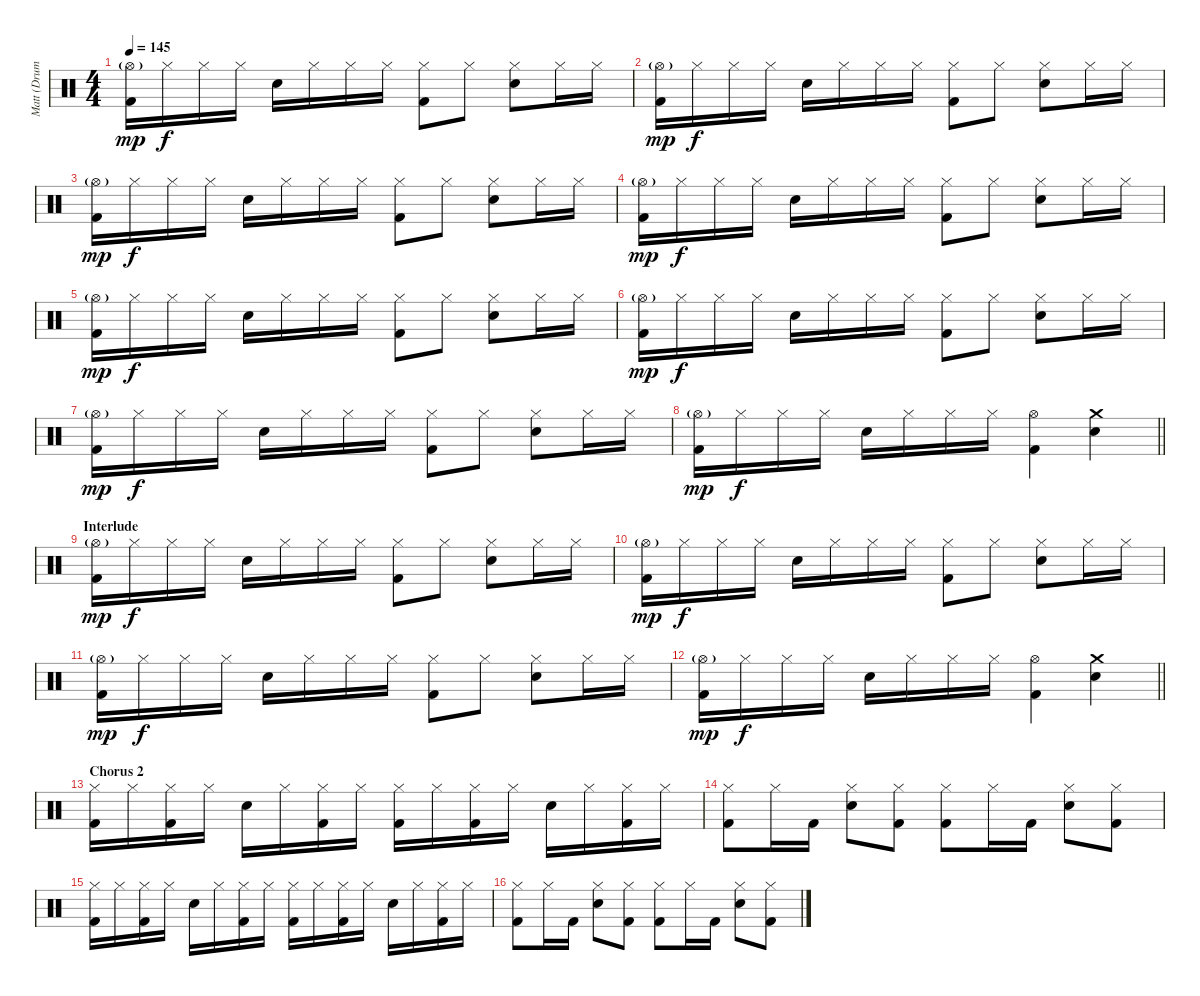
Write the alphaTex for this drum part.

\track ("Matt (Drums)" "Matt (Drum") {instrument percussion}
\staff {score}
\articulation defaults
\ts (4 4)
\tempo 145
\clef neutral
\ks c
("Hi-Hat (open)"{g} "Kick (hit) 2").16{dy mp} "Hi-Hat (closed)".16{dy f} "Hi-Hat (closed)".16 "Hi-Hat (closed)".16 "Electric Snare (hit)".16 "Hi-Hat (closed)".16 "Hi-Hat (closed)".16 "Hi-Hat (closed)".16 ("Hi-Hat (closed)" "Kick (hit) 2").8 "Hi-Hat (closed)".8 ("Hi-Hat (closed)" "Electric Snare (hit)").8 "Hi-Hat (closed)".16 "Hi-Hat (closed)".16 |
("Hi-Hat (open)"{g} "Kick (hit) 2").16{dy mp} "Hi-Hat (closed)".16{dy f} "Hi-Hat (closed)".16 "Hi-Hat (closed)".16 "Electric Snare (hit)".16 "Hi-Hat (closed)".16 "Hi-Hat (closed)".16 "Hi-Hat (closed)".16 ("Hi-Hat (closed)" "Kick (hit) 2").8 "Hi-Hat (closed)".8 ("Hi-Hat (closed)" "Electric Snare (hit)").8 "Hi-Hat (closed)".16 "Hi-Hat (closed)".16 |
("Hi-Hat (open)"{g} "Kick (hit) 2").16{dy mp} "Hi-Hat (closed)".16{dy f} "Hi-Hat (closed)".16 "Hi-Hat (closed)".16 "Electric Snare (hit)".16 "Hi-Hat (closed)".16 "Hi-Hat (closed)".16 "Hi-Hat (closed)".16 ("Hi-Hat (closed)" "Kick (hit) 2").8 "Hi-Hat (closed)".8 ("Hi-Hat (closed)" "Electric Snare (hit)").8 "Hi-Hat (closed)".16 "Hi-Hat (closed)".16 |
("Hi-Hat (open)"{g} "Kick (hit) 2").16{dy mp} "Hi-Hat (closed)".16{dy f} "Hi-Hat (closed)".16 "Hi-Hat (closed)".16 "Electric Snare (hit)".16 "Hi-Hat (closed)".16 "Hi-Hat (closed)".16 "Hi-Hat (closed)".16 ("Hi-Hat (closed)" "Kick (hit) 2").8 "Hi-Hat (closed)".8 ("Hi-Hat (closed)" "Electric Snare (hit)").8 "Hi-Hat (closed)".16 "Hi-Hat (closed)".16 |
("Hi-Hat (open)"{g} "Kick (hit) 2").16{dy mp} "Hi-Hat (closed)".16{dy f} "Hi-Hat (closed)".16 "Hi-Hat (closed)".16 "Electric Snare (hit)".16 "Hi-Hat (closed)".16 "Hi-Hat (closed)".16 "Hi-Hat (closed)".16 ("Hi-Hat (closed)" "Kick (hit) 2").8 "Hi-Hat (closed)".8 ("Hi-Hat (closed)" "Electric Snare (hit)").8 "Hi-Hat (closed)".16 "Hi-Hat (closed)".16 |
("Hi-Hat (open)"{g} "Kick (hit) 2").16{dy mp} "Hi-Hat (closed)".16{dy f} "Hi-Hat (closed)".16 "Hi-Hat (closed)".16 "Electric Snare (hit)".16 "Hi-Hat (closed)".16 "Hi-Hat (closed)".16 "Hi-Hat (closed)".16 ("Hi-Hat (closed)" "Kick (hit) 2").8 "Hi-Hat (closed)".8 ("Hi-Hat (closed)" "Electric Snare (hit)").8 "Hi-Hat (closed)".16 "Hi-Hat (closed)".16 |
("Hi-Hat (open)"{g} "Kick (hit) 2").16{dy mp} "Hi-Hat (closed)".16{dy f} "Hi-Hat (closed)".16 "Hi-Hat (closed)".16 "Electric Snare (hit)".16 "Hi-Hat (closed)".16 "Hi-Hat (closed)".16 "Hi-Hat (closed)".16 ("Hi-Hat (closed)" "Kick (hit) 2").8 "Hi-Hat (closed)".8 ("Hi-Hat (closed)" "Electric Snare (hit)").8 "Hi-Hat (closed)".16 "Hi-Hat (closed)".16 |
\barLineRight lightlight
("Hi-Hat (open)"{g} "Kick (hit) 2").16{dy mp} "Hi-Hat (closed)".16{dy f} "Hi-Hat (closed)".16 "Hi-Hat (closed)".16 "Electric Snare (hit)".16 "Hi-Hat (closed)".16 "Hi-Hat (closed)".16 "Hi-Hat (closed)".16 ("Hi-Hat (open)" "Kick (hit) 2").4 ("Crash medium (hit)" "Electric Snare (hit)").4 |
\section ("" "Interlude")
("Hi-Hat (open)"{g} "Kick (hit) 2").16{dy mp} "Hi-Hat (closed)".16{dy f} "Hi-Hat (closed)".16 "Hi-Hat (closed)".16 "Electric Snare (hit)".16 "Hi-Hat (closed)".16 "Hi-Hat (closed)".16 "Hi-Hat (closed)".16 ("Hi-Hat (closed)" "Kick (hit) 2").8 "Hi-Hat (closed)".8 ("Hi-Hat (closed)" "Electric Snare (hit)").8 "Hi-Hat (closed)".16 "Hi-Hat (closed)".16 |
("Hi-Hat (open)"{g} "Kick (hit) 2").16{dy mp} "Hi-Hat (closed)".16{dy f} "Hi-Hat (closed)".16 "Hi-Hat (closed)".16 "Electric Snare (hit)".16 "Hi-Hat (closed)".16 "Hi-Hat (closed)".16 "Hi-Hat (closed)".16 ("Hi-Hat (closed)" "Kick (hit) 2").8 "Hi-Hat (closed)".8 ("Hi-Hat (closed)" "Electric Snare (hit)").8 "Hi-Hat (closed)".16 "Hi-Hat (closed)".16 |
("Hi-Hat (open)"{g} "Kick (hit) 2").16{dy mp} "Hi-Hat (closed)".16{dy f} "Hi-Hat (closed)".16 "Hi-Hat (closed)".16 "Electric Snare (hit)".16 "Hi-Hat (closed)".16 "Hi-Hat (closed)".16 "Hi-Hat (closed)".16 ("Hi-Hat (closed)" "Kick (hit) 2").8 "Hi-Hat (closed)".8 ("Hi-Hat (closed)" "Electric Snare (hit)").8 "Hi-Hat (closed)".16 "Hi-Hat (closed)".16 |
\barLineRight lightlight
("Hi-Hat (open)"{g} "Kick (hit) 2").16{dy mp} "Hi-Hat (closed)".16{dy f} "Hi-Hat (closed)".16 "Hi-Hat (closed)".16 "Electric Snare (hit)".16 "Hi-Hat (closed)".16 "Hi-Hat (closed)".16 "Hi-Hat (closed)".16 ("Hi-Hat (open)" "Kick (hit) 2").4 ("Crash medium (hit)" "Electric Snare (hit)").4 |
\section ("" "Chorus 2")
("Hi-Hat (closed)" "Kick (hit) 2").16 "Hi-Hat (closed)".16 ("Hi-Hat (closed)" "Kick (hit) 2").16 "Hi-Hat (closed)".16 "Electric Snare (hit)".16 "Hi-Hat (closed)".16 ("Hi-Hat (closed)" "Kick (hit) 2").16 "Hi-Hat (closed)".16 ("Hi-Hat (closed)" "Kick (hit) 2").16 "Hi-Hat (closed)".16 ("Hi-Hat (closed)" "Kick (hit) 2").16 "Hi-Hat (closed)".16 "Electric Snare (hit)".16 "Hi-Hat (closed)".16 ("Hi-Hat (closed)" "Kick (hit) 2").16 "Hi-Hat (closed)".16 |
("Hi-Hat (closed)" "Kick (hit) 2").8 "Hi-Hat (closed)".16 "Kick (hit) 2".16 ("Hi-Hat (closed)" "Electric Snare (hit)").8 ("Hi-Hat (closed)" "Kick (hit) 2").8 ("Hi-Hat (closed)" "Kick (hit) 2").8 "Hi-Hat (closed)".16 "Kick (hit) 2".16 ("Hi-Hat (closed)" "Electric Snare (hit)").8 ("Hi-Hat (closed)" "Kick (hit) 2").8 |
("Hi-Hat (closed)" "Kick (hit) 2").16 "Hi-Hat (closed)".16 ("Hi-Hat (closed)" "Kick (hit) 2").16 "Hi-Hat (closed)".16 "Electric Snare (hit)".16 "Hi-Hat (closed)".16 ("Hi-Hat (closed)" "Kick (hit) 2").16 "Hi-Hat (closed)".16 ("Hi-Hat (closed)" "Kick (hit) 2").16 "Hi-Hat (closed)".16 ("Hi-Hat (closed)" "Kick (hit) 2").16 "Hi-Hat (closed)".16 "Electric Snare (hit)".16 "Hi-Hat (closed)".16 ("Hi-Hat (closed)" "Kick (hit) 2").16 "Hi-Hat (closed)".16 |
("Hi-Hat (closed)" "Kick (hit) 2").8 "Hi-Hat (closed)".16 "Kick (hit) 2".16 ("Hi-Hat (closed)" "Electric Snare (hit)").8 ("Hi-Hat (closed)" "Kick (hit) 2").8 ("Hi-Hat (closed)" "Kick (hit) 2").8 "Hi-Hat (closed)".16 "Kick (hit) 2".16 ("Hi-Hat (closed)" "Electric Snare (hit)").8 ("Hi-Hat (closed)" "Kick (hit) 2").8
